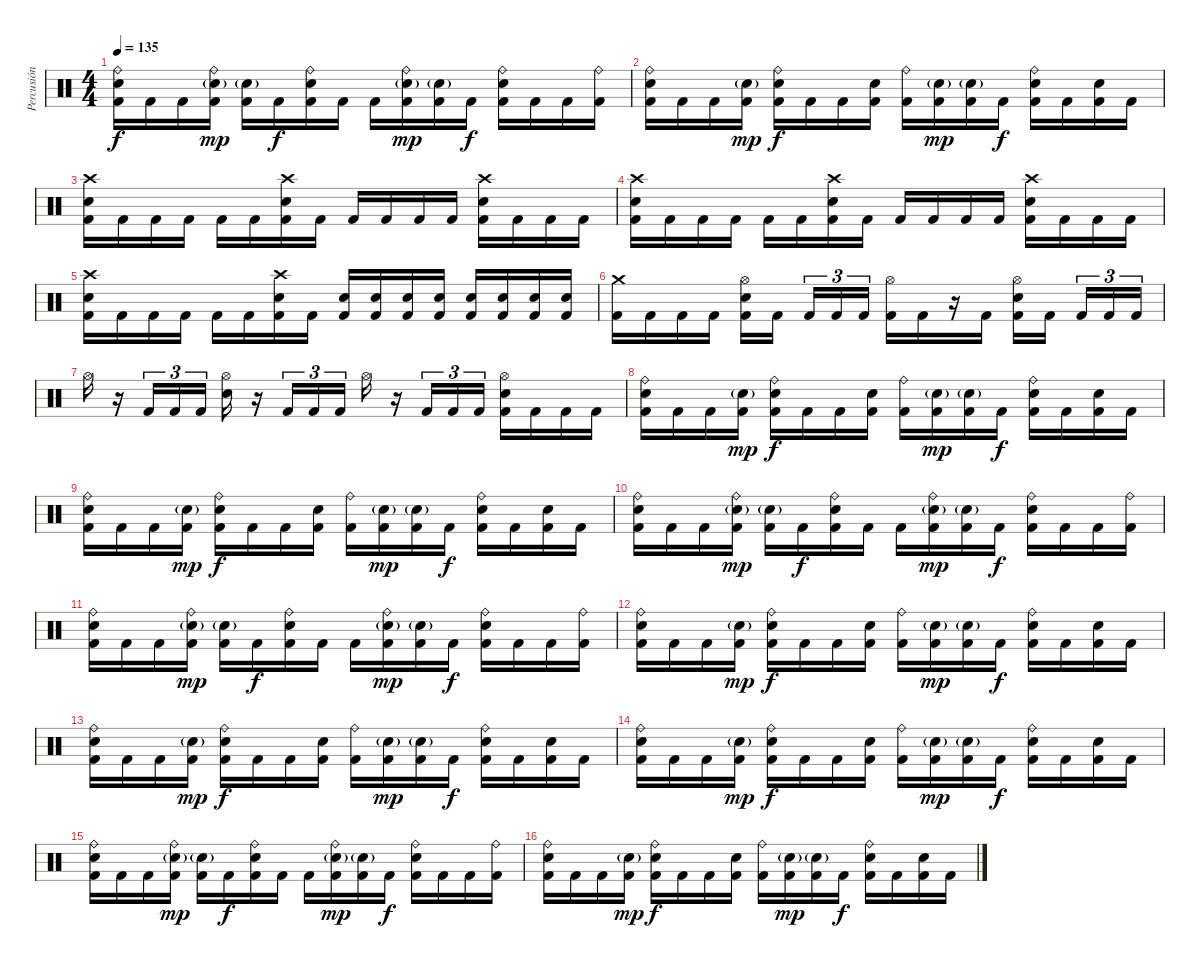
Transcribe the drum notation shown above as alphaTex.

\track ("Percusión" "Percusión") {instrument percussion}
\staff {score}
\articulation defaults
\ts (4 4)
\tempo 135
\clef neutral
\ks c
("Ride (bell)" "Electric Snare (hit)" "Kick (hit) 2").16{dy f} "Kick (hit) 2".16 "Kick (hit) 2".16 ("Ride (bell)" "Electric Snare (hit)"{g} "Kick (hit) 2").16{dy mp} ("Electric Snare (hit)"{g} "Kick (hit) 2").16 "Kick (hit) 2".16{dy f} ("Ride (bell)" "Electric Snare (hit)" "Kick (hit) 2").16 "Kick (hit) 2".16 "Kick (hit) 2".16 ("Ride (bell)" "Electric Snare (hit)"{g} "Kick (hit) 2").16{dy mp} ("Electric Snare (hit)"{g} "Kick (hit) 2").16 "Kick (hit) 2".16{dy f} ("Ride (bell)" "Electric Snare (hit)" "Kick (hit) 2").16 "Kick (hit) 2".16 "Kick (hit) 2".16 ("Ride (bell)" "Kick (hit) 2").16 |
("Ride (bell)" "Electric Snare (hit)" "Kick (hit) 2").16 "Kick (hit) 2".16 "Kick (hit) 2".16 ("Electric Snare (hit)"{g} "Kick (hit) 2").16{dy mp} ("Ride (bell)" "Electric Snare (hit)" "Kick (hit) 2").16{dy f} "Kick (hit) 2".16 "Kick (hit) 2".16 ("Electric Snare (hit)" "Kick (hit) 2").16 ("Ride (bell)" "Kick (hit) 2").16 ("Electric Snare (hit)"{g} "Kick (hit) 2").16{dy mp} ("Electric Snare (hit)"{g} "Kick (hit) 2").16 "Kick (hit) 2".16{dy f} ("Ride (bell)" "Electric Snare (hit)" "Kick (hit) 2").16 "Kick (hit) 2".16 ("Electric Snare (hit)" "Kick (hit) 2").16 "Kick (hit) 2".16 |
("Crash high (hit)" "Electric Snare (hit)" "Kick (hit) 2").16 "Kick (hit) 2".16 "Kick (hit) 2".16 "Kick (hit) 2".16 "Kick (hit) 2".16 "Kick (hit) 2".16 ("Crash high (hit)" "Electric Snare (hit)" "Kick (hit) 2").16 "Kick (hit) 2".16 "Kick (hit) 2".16 "Kick (hit) 2".16 "Kick (hit) 2".16 "Kick (hit) 2".16 ("Crash high (hit)" "Electric Snare (hit)" "Kick (hit) 2").16 "Kick (hit) 2".16 "Kick (hit) 2".16 "Kick (hit) 2".16 |
("Crash high (hit)" "Electric Snare (hit)" "Kick (hit) 2").16 "Kick (hit) 2".16 "Kick (hit) 2".16 "Kick (hit) 2".16 "Kick (hit) 2".16 "Kick (hit) 2".16 ("Crash high (hit)" "Electric Snare (hit)" "Kick (hit) 2").16 "Kick (hit) 2".16 "Kick (hit) 2".16 "Kick (hit) 2".16 "Kick (hit) 2".16 "Kick (hit) 2".16 ("Crash high (hit)" "Electric Snare (hit)" "Kick (hit) 2").16 "Kick (hit) 2".16 "Kick (hit) 2".16 "Kick (hit) 2".16 |
("Crash high (hit)" "Electric Snare (hit)" "Kick (hit) 2").16 "Kick (hit) 2".16 "Kick (hit) 2".16 "Kick (hit) 2".16 "Kick (hit) 2".16 "Kick (hit) 2".16 ("Crash high (hit)" "Electric Snare (hit)" "Kick (hit) 2").16 "Kick (hit) 2".16 ("Electric Snare (hit)" "Kick (hit) 2").16 ("Electric Snare (hit)" "Kick (hit) 2").16 ("Electric Snare (hit)" "Kick (hit) 2").16 ("Electric Snare (hit)" "Kick (hit) 2").16 ("Electric Snare (hit)" "Kick (hit) 2").16 ("Electric Snare (hit)" "Kick (hit) 2").16 ("Electric Snare (hit)" "Kick (hit) 2").16 ("Electric Snare (hit)" "Kick (hit) 2").16 |
("Crash medium (hit)" "Kick (hit) 2").16 "Kick (hit) 2".16 "Kick (hit) 2".16 "Kick (hit) 2".16 ("Hi-Hat (open)" "Electric Snare (hit)" "Kick (hit) 2").16 "Kick (hit) 2".16{beam splitsecondary} "Kick (hit) 2".16{tu (3 2)} "Kick (hit) 2".16{tu (3 2)} "Kick (hit) 2".16{tu (3 2)} ("Hi-Hat (open)" "Kick (hit) 2").16 "Kick (hit) 2".16 r.16 "Kick (hit) 2".16 ("Hi-Hat (open)" "Electric Snare (hit)" "Kick (hit) 2").16 "Kick (hit) 2".16{beam splitsecondary} "Kick (hit) 2".16{tu (3 2)} "Kick (hit) 2".16{tu (3 2)} "Kick (hit) 2".16{tu (3 2)} |
"Hi-Hat (open)".16 r.16 "Kick (hit) 2".16{tu (3 2)} "Kick (hit) 2".16{tu (3 2)} "Kick (hit) 2".16{tu (3 2)} ("Hi-Hat (open)" "Electric Snare (hit)").16 r.16 "Kick (hit) 2".16{tu (3 2)} "Kick (hit) 2".16{tu (3 2)} "Kick (hit) 2".16{tu (3 2)} "Hi-Hat (open)".16 r.16 "Kick (hit) 2".16{tu (3 2)} "Kick (hit) 2".16{tu (3 2)} "Kick (hit) 2".16{tu (3 2)} ("Hi-Hat (open)" "Electric Snare (hit)" "Kick (hit) 2").16 "Kick (hit) 2".16 "Kick (hit) 2".16 "Kick (hit) 2".16 |
("Ride (bell)" "Electric Snare (hit)" "Kick (hit) 2").16 "Kick (hit) 2".16 "Kick (hit) 2".16 ("Electric Snare (hit)"{g} "Kick (hit) 2").16{dy mp} ("Ride (bell)" "Electric Snare (hit)" "Kick (hit) 2").16{dy f} "Kick (hit) 2".16 "Kick (hit) 2".16 ("Electric Snare (hit)" "Kick (hit) 2").16 ("Ride (bell)" "Kick (hit) 2").16 ("Electric Snare (hit)"{g} "Kick (hit) 2").16{dy mp} ("Electric Snare (hit)"{g} "Kick (hit) 2").16 "Kick (hit) 2".16{dy f} ("Ride (bell)" "Electric Snare (hit)" "Kick (hit) 2").16 "Kick (hit) 2".16 ("Electric Snare (hit)" "Kick (hit) 2").16 "Kick (hit) 2".16 |
("Ride (bell)" "Electric Snare (hit)" "Kick (hit) 2").16 "Kick (hit) 2".16 "Kick (hit) 2".16 ("Electric Snare (hit)"{g} "Kick (hit) 2").16{dy mp} ("Ride (bell)" "Electric Snare (hit)" "Kick (hit) 2").16{dy f} "Kick (hit) 2".16 "Kick (hit) 2".16 ("Electric Snare (hit)" "Kick (hit) 2").16 ("Ride (bell)" "Kick (hit) 2").16 ("Electric Snare (hit)"{g} "Kick (hit) 2").16{dy mp} ("Electric Snare (hit)"{g} "Kick (hit) 2").16 "Kick (hit) 2".16{dy f} ("Ride (bell)" "Electric Snare (hit)" "Kick (hit) 2").16 "Kick (hit) 2".16 ("Electric Snare (hit)" "Kick (hit) 2").16 "Kick (hit) 2".16 |
("Ride (bell)" "Electric Snare (hit)" "Kick (hit) 2").16 "Kick (hit) 2".16 "Kick (hit) 2".16 ("Ride (bell)" "Electric Snare (hit)"{g} "Kick (hit) 2").16{dy mp} ("Electric Snare (hit)"{g} "Kick (hit) 2").16 "Kick (hit) 2".16{dy f} ("Ride (bell)" "Electric Snare (hit)" "Kick (hit) 2").16 "Kick (hit) 2".16 "Kick (hit) 2".16 ("Ride (bell)" "Electric Snare (hit)"{g} "Kick (hit) 2").16{dy mp} ("Electric Snare (hit)"{g} "Kick (hit) 2").16 "Kick (hit) 2".16{dy f} ("Ride (bell)" "Electric Snare (hit)" "Kick (hit) 2").16 "Kick (hit) 2".16 "Kick (hit) 2".16 ("Ride (bell)" "Kick (hit) 2").16 |
("Ride (bell)" "Electric Snare (hit)" "Kick (hit) 2").16 "Kick (hit) 2".16 "Kick (hit) 2".16 ("Ride (bell)" "Electric Snare (hit)"{g} "Kick (hit) 2").16{dy mp} ("Electric Snare (hit)"{g} "Kick (hit) 2").16 "Kick (hit) 2".16{dy f} ("Ride (bell)" "Electric Snare (hit)" "Kick (hit) 2").16 "Kick (hit) 2".16 "Kick (hit) 2".16 ("Ride (bell)" "Electric Snare (hit)"{g} "Kick (hit) 2").16{dy mp} ("Electric Snare (hit)"{g} "Kick (hit) 2").16 "Kick (hit) 2".16{dy f} ("Ride (bell)" "Electric Snare (hit)" "Kick (hit) 2").16 "Kick (hit) 2".16 "Kick (hit) 2".16 ("Ride (bell)" "Kick (hit) 2").16 |
("Ride (bell)" "Electric Snare (hit)" "Kick (hit) 2").16 "Kick (hit) 2".16 "Kick (hit) 2".16 ("Electric Snare (hit)"{g} "Kick (hit) 2").16{dy mp} ("Ride (bell)" "Electric Snare (hit)" "Kick (hit) 2").16{dy f} "Kick (hit) 2".16 "Kick (hit) 2".16 ("Electric Snare (hit)" "Kick (hit) 2").16 ("Ride (bell)" "Kick (hit) 2").16 ("Electric Snare (hit)"{g} "Kick (hit) 2").16{dy mp} ("Electric Snare (hit)"{g} "Kick (hit) 2").16 "Kick (hit) 2".16{dy f} ("Ride (bell)" "Electric Snare (hit)" "Kick (hit) 2").16 "Kick (hit) 2".16 ("Electric Snare (hit)" "Kick (hit) 2").16 "Kick (hit) 2".16 |
("Ride (bell)" "Electric Snare (hit)" "Kick (hit) 2").16 "Kick (hit) 2".16 "Kick (hit) 2".16 ("Electric Snare (hit)"{g} "Kick (hit) 2").16{dy mp} ("Ride (bell)" "Electric Snare (hit)" "Kick (hit) 2").16{dy f} "Kick (hit) 2".16 "Kick (hit) 2".16 ("Electric Snare (hit)" "Kick (hit) 2").16 ("Ride (bell)" "Kick (hit) 2").16 ("Electric Snare (hit)"{g} "Kick (hit) 2").16{dy mp} ("Electric Snare (hit)"{g} "Kick (hit) 2").16 "Kick (hit) 2".16{dy f} ("Ride (bell)" "Electric Snare (hit)" "Kick (hit) 2").16 "Kick (hit) 2".16 ("Electric Snare (hit)" "Kick (hit) 2").16 "Kick (hit) 2".16 |
("Ride (bell)" "Electric Snare (hit)" "Kick (hit) 2").16 "Kick (hit) 2".16 "Kick (hit) 2".16 ("Electric Snare (hit)"{g} "Kick (hit) 2").16{dy mp} ("Ride (bell)" "Electric Snare (hit)" "Kick (hit) 2").16{dy f} "Kick (hit) 2".16 "Kick (hit) 2".16 ("Electric Snare (hit)" "Kick (hit) 2").16 ("Ride (bell)" "Kick (hit) 2").16 ("Electric Snare (hit)"{g} "Kick (hit) 2").16{dy mp} ("Electric Snare (hit)"{g} "Kick (hit) 2").16 "Kick (hit) 2".16{dy f} ("Ride (bell)" "Electric Snare (hit)" "Kick (hit) 2").16 "Kick (hit) 2".16 ("Electric Snare (hit)" "Kick (hit) 2").16 "Kick (hit) 2".16 |
("Ride (bell)" "Electric Snare (hit)" "Kick (hit) 2").16 "Kick (hit) 2".16 "Kick (hit) 2".16 ("Ride (bell)" "Electric Snare (hit)"{g} "Kick (hit) 2").16{dy mp} ("Electric Snare (hit)"{g} "Kick (hit) 2").16 "Kick (hit) 2".16{dy f} ("Ride (bell)" "Electric Snare (hit)" "Kick (hit) 2").16 "Kick (hit) 2".16 "Kick (hit) 2".16 ("Ride (bell)" "Electric Snare (hit)"{g} "Kick (hit) 2").16{dy mp} ("Electric Snare (hit)"{g} "Kick (hit) 2").16 "Kick (hit) 2".16{dy f} ("Ride (bell)" "Electric Snare (hit)" "Kick (hit) 2").16 "Kick (hit) 2".16 "Kick (hit) 2".16 ("Ride (bell)" "Kick (hit) 2").16 |
("Ride (bell)" "Electric Snare (hit)" "Kick (hit) 2").16 "Kick (hit) 2".16 "Kick (hit) 2".16 ("Electric Snare (hit)"{g} "Kick (hit) 2").16{dy mp} ("Ride (bell)" "Electric Snare (hit)" "Kick (hit) 2").16{dy f} "Kick (hit) 2".16 "Kick (hit) 2".16 ("Electric Snare (hit)" "Kick (hit) 2").16 ("Ride (bell)" "Kick (hit) 2").16 ("Electric Snare (hit)"{g} "Kick (hit) 2").16{dy mp} ("Electric Snare (hit)"{g} "Kick (hit) 2").16 "Kick (hit) 2".16{dy f} ("Ride (bell)" "Electric Snare (hit)" "Kick (hit) 2").16 "Kick (hit) 2".16 ("Electric Snare (hit)" "Kick (hit) 2").16 "Kick (hit) 2".16
